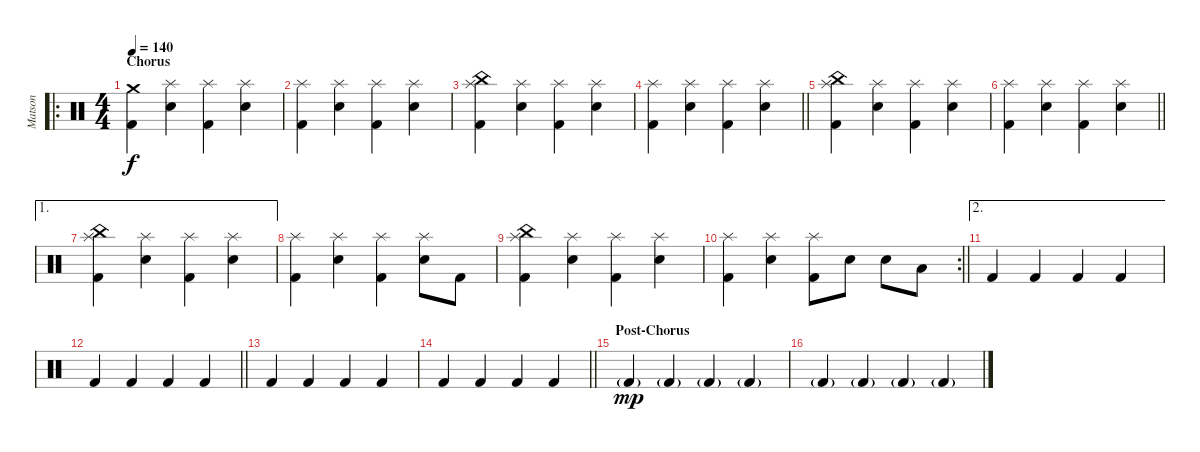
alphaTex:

\track ("Matson" "Matson") {instrument percussion}
\staff {score}
\articulation defaults
\ro
\ts (4 4)
\section ("" "Chorus")
\tempo 140
\clef neutral
\ks c
("Kick (hit) 2" "Crash medium (hit)").4{dy f} ("Snare (hit) 2" "Splash (hit)").4 ("Kick (hit) 2" "Splash (hit)").4 ("Snare (hit) 2" "Splash (hit)").4 |
("Kick (hit) 2" "Splash (hit)").4 ("Snare (hit) 2" "Splash (hit)").4 ("Kick (hit) 2" "Splash (hit)").4 ("Snare (hit) 2" "Splash (hit)").4 |
("Kick (hit) 2" "Splash (hit)" "China (hit)").4 ("Snare (hit) 2" "Splash (hit)").4 ("Kick (hit) 2" "Splash (hit)").4 ("Snare (hit) 2" "Splash (hit)").4 |
\barLineRight lightlight
("Kick (hit) 2" "Splash (hit)").4 ("Snare (hit) 2" "Splash (hit)").4 ("Kick (hit) 2" "Splash (hit)").4 ("Snare (hit) 2" "Splash (hit)").4 |
("Kick (hit) 2" "Splash (hit)" "China (hit)").4 ("Snare (hit) 2" "Splash (hit)").4 ("Kick (hit) 2" "Splash (hit)").4 ("Snare (hit) 2" "Splash (hit)").4 |
\barLineRight lightlight
("Kick (hit) 2" "Splash (hit)").4 ("Snare (hit) 2" "Splash (hit)").4 ("Kick (hit) 2" "Splash (hit)").4 ("Snare (hit) 2" "Splash (hit)").4 |
\ae 1
\section ("" "")
("Kick (hit) 2" "Splash (hit)" "China (hit)").4 ("Snare (hit) 2" "Splash (hit)").4 ("Kick (hit) 2" "Splash (hit)").4 ("Snare (hit) 2" "Splash (hit)").4 |
("Kick (hit) 2" "Splash (hit)").4 ("Snare (hit) 2" "Splash (hit)").4 ("Kick (hit) 2" "Splash (hit)").4 ("Snare (hit) 2" "Splash (hit)").8 "Kick (hit) 2".8 |
("Kick (hit) 2" "Splash (hit)" "China (hit)").4 ("Snare (hit) 2" "Splash (hit)").4 ("Kick (hit) 2" "Splash (hit)").4 ("Snare (hit) 2" "Splash (hit)").4 |
\rc 2
\barLineRight lightlight
("Kick (hit) 2" "Splash (hit)").4 ("Snare (hit) 2" "Splash (hit)").4 ("Kick (hit) 2" "Splash (hit)").8 "Snare (hit) 2".8 "Snare (hit) 2".8 "Low Floor Tom (hit)".8 |
\ae 2
\section ("" "")
"Kick (hit) 2".4 "Kick (hit) 2".4 "Kick (hit) 2".4 "Kick (hit) 2".4 |
\barLineRight lightlight "Kick (hit) 2".4 "Kick (hit) 2".4 "Kick (hit) 2".4 "Kick (hit) 2".4
|
"Kick (hit) 2".4 "Kick (hit) 2".4 "Kick (hit) 2".4 "Kick (hit) 2".4 |
\barLineRight lightlight "Kick (hit) 2".4 "Kick (hit) 2".4 "Kick (hit) 2".4 "Kick (hit) 2".4
|
\section ("" "Post-Chorus")
"Kick (hit) 2"{g}.4{dy mp} "Kick (hit) 2"{g}.4 "Kick (hit) 2"{g}.4 "Kick (hit) 2"{g}.4 |
"Kick (hit) 2"{g}.4 "Kick (hit) 2"{g}.4 "Kick (hit) 2"{g}.4 "Kick (hit) 2"{g}.4
